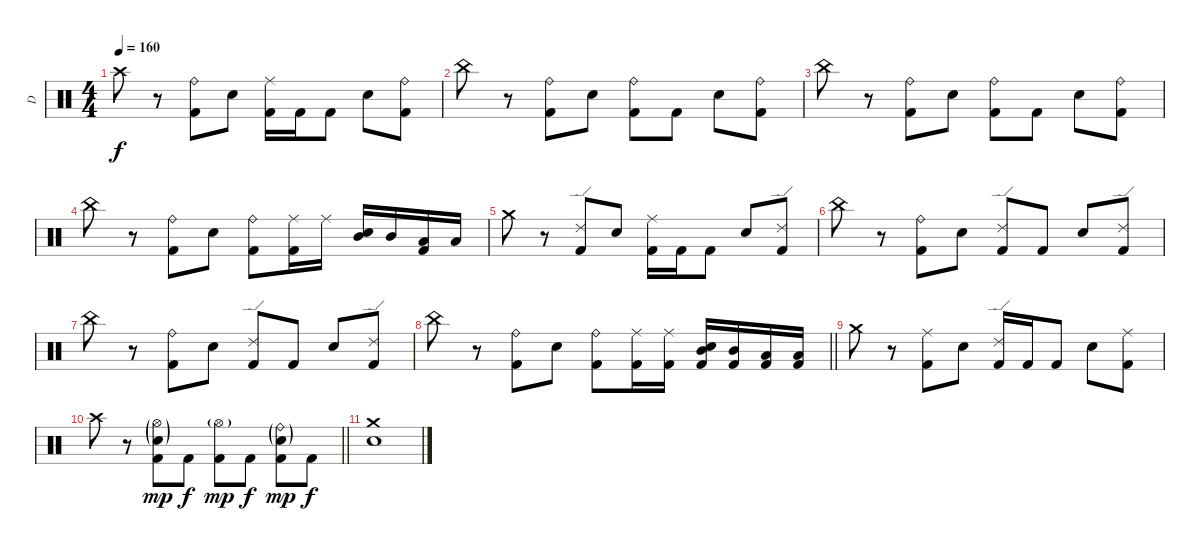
\track ("D" "D") {instrument percussion}
\staff {score}
\articulation defaults
\ts (4 4)
\tempo 160
\clef neutral
\ks c "Crash high (hit)".8{dy f}
r.8 ("Ride (bell)" "Kick (hit) 2").8 "Electric Snare (hit)".8 ("Ride (middle)" "Kick (hit) 2").16 "Kick (hit) 2".16 "Kick (hit) 2".8 "Electric Snare (hit)".8 ("Ride (bell)" "Kick (hit) 2").8 |
"China (hit)".8 r.8 ("Ride (bell)" "Kick (hit) 2").8 "Electric Snare (hit)".8 ("Ride (bell)" "Kick (hit) 2").8 "Kick (hit) 2".8 "Electric Snare (hit)".8 ("Ride (bell)" "Kick (hit) 2").8 |
"China (hit)".8 r.8 ("Ride (bell)" "Kick (hit) 2").8 "Electric Snare (hit)".8 ("Ride (bell)" "Kick (hit) 2").8 "Kick (hit) 2".8 "Electric Snare (hit)".8 ("Ride (bell)" "Kick (hit) 2").8 |
"China (hit)".8 r.8 ("Ride (bell)" "Kick (hit) 2").8 "Electric Snare (hit)".8 ("Ride (bell)" "Kick (hit) 2").8 ("Ride (middle)" "Kick (hit) 2").16 "Ride (middle)".16 ("Mid Tom (hit)" "Electric Snare (hit)").16 "Mid Tom (hit)".16 ("Low Tom (hit)" "Kick (hit) 2").16 "Low Tom (hit)".16 |
"Crash medium (hit)".8 r.8 ("Ride (edge) 2" "Kick (hit) 2").8 "Electric Snare (hit)".8 ("Ride (middle)" "Kick (hit) 2").16 "Kick (hit) 2".16 "Kick (hit) 2".8 "Electric Snare (hit)".8 ("Ride (edge) 2" "Kick (hit) 2").8 |
"China (hit)".8 r.8 ("Ride (bell)" "Kick (hit) 2").8 "Electric Snare (hit)".8 ("Ride (edge) 2" "Kick (hit) 2").8 "Kick (hit) 2".8 "Electric Snare (hit)".8 ("Ride (edge) 2" "Kick (hit) 2").8 |
"China (hit)".8 r.8 ("Ride (bell)" "Kick (hit) 2").8 "Electric Snare (hit)".8 ("Ride (edge) 2" "Kick (hit) 2").8 "Kick (hit) 2".8 "Electric Snare (hit)".8 ("Ride (edge) 2" "Kick (hit) 2").8 |
\barLineRight lightlight "China (hit)".8
r.8 ("Ride (bell)" "Kick (hit) 2").8 "Electric Snare (hit)".8 ("Ride (bell)" "Kick (hit) 2").8 ("Ride (middle)" "Kick (hit) 2").16 ("Ride (middle)" "Kick (hit) 2").16 ("Mid Tom (hit)" "Electric Snare (hit)" "Kick (hit) 2").16 ("Mid Tom (hit)" "Kick (hit) 2").16 ("Low Tom (hit)" "Kick (hit) 2").16 ("Low Tom (hit)" "Kick (hit) 2").16 |
"Crash medium (hit)".8 r.8 ("Ride (middle)" "Kick (hit) 2").8 "Electric Snare (hit)".8 ("Ride (edge) 2" "Kick (hit) 2").16 "Kick (hit) 2".16 "Kick (hit) 2".8 "Electric Snare (hit)".8 ("Ride (middle)" "Kick (hit) 2").8 |
\barLineRight lightlight "Crash high (hit)".8
r.8 ("Hi-Hat (open)"{g} "Electric Snare (hit)"{g} "Kick (hit) 2").8{dy mp} "Kick (hit) 2".8{dy f} ("Hi-Hat (open)"{g} "Kick (hit) 2").8{dy mp} "Kick (hit) 2".8{dy f} ("Ride (bell)"{g} "Electric Snare (hit)"{g} "Kick (hit) 2").8{dy mp} "Kick (hit) 2".8{dy f} |
("Crash medium (hit)" "Electric Snare (hit)").1
